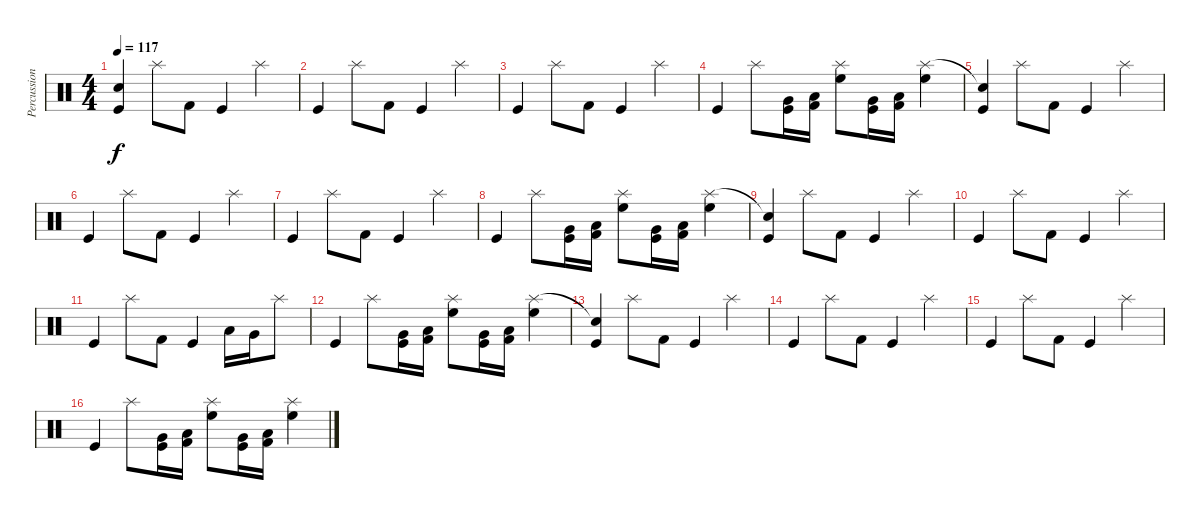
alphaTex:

\track ("Percussions" "Percussion") {instrument percussion}
\staff {score}
\articulation defaults
\ts (4 4)
\tempo 117
\clef neutral
\ks c
("Snare (hit)"{t} "Kick (hit)").4{dy f} "Splash (hit)".8 "Kick (hit) 2".8 "Kick (hit)".4 "Splash (hit)".4 |
"Kick (hit)".4 "Splash (hit)".8 "Kick (hit) 2".8 "Kick (hit)".4 "Splash (hit)".4 |
"Kick (hit)".4 "Splash (hit)".8 "Kick (hit) 2".8 "Kick (hit)".4 "Splash (hit)".4 |
"Kick (hit)".4 "Splash (hit)".8 ("Very Low Tom (hit)" "Kick (hit)").16 ("Low Tom (hit)" "Kick (hit) 2").16 ("Splash (hit)" "High Floor Tom (hit)").8 ("Very Low Tom (hit)" "Kick (hit)").16 ("Low Tom (hit)" "Kick (hit) 2").16 ("Splash (hit)" "High Floor Tom (hit)").4 |
("Snare (hit)"{t} "Kick (hit)").4 "Splash (hit)".8 "Kick (hit) 2".8 "Kick (hit)".4 "Splash (hit)".4 |
"Kick (hit)".4 "Splash (hit)".8 "Kick (hit) 2".8 "Kick (hit)".4 "Splash (hit)".4 |
"Kick (hit)".4 "Splash (hit)".8 "Kick (hit) 2".8 "Kick (hit)".4 "Splash (hit)".4 |
"Kick (hit)".4 "Splash (hit)".8 ("Very Low Tom (hit)" "Kick (hit)").16 ("Low Tom (hit)" "Kick (hit) 2").16 ("Splash (hit)" "High Floor Tom (hit)").8 ("Very Low Tom (hit)" "Kick (hit)").16 ("Low Tom (hit)" "Kick (hit) 2").16 ("Splash (hit)" "High Floor Tom (hit)").4 |
("Snare (hit)"{t} "Kick (hit)").4 "Splash (hit)".8 "Kick (hit) 2".8 "Kick (hit)".4 "Splash (hit)".4 |
"Kick (hit)".4 "Splash (hit)".8 "Kick (hit) 2".8 "Kick (hit)".4 "Splash (hit)".4 |
"Kick (hit)".4 "Splash (hit)".8 "Kick (hit) 2".8 "Kick (hit)".4 "Low Tom (hit)".16 "Very Low Tom (hit)".16 "Splash (hit)".8 |
"Kick (hit)".4 "Splash (hit)".8 ("Very Low Tom (hit)" "Kick (hit)").16 ("Low Tom (hit)" "Kick (hit) 2").16 ("Splash (hit)" "High Floor Tom (hit)").8 ("Very Low Tom (hit)" "Kick (hit)").16 ("Low Tom (hit)" "Kick (hit) 2").16 ("Splash (hit)" "High Floor Tom (hit)").4 |
("Snare (hit)"{t} "Kick (hit)").4 "Splash (hit)".8 "Kick (hit) 2".8 "Kick (hit)".4 "Splash (hit)".4 |
"Kick (hit)".4 "Splash (hit)".8 "Kick (hit) 2".8 "Kick (hit)".4 "Splash (hit)".4 |
"Kick (hit)".4 "Splash (hit)".8 "Kick (hit) 2".8 "Kick (hit)".4 "Splash (hit)".4 |
"Kick (hit)".4 "Splash (hit)".8 ("Very Low Tom (hit)" "Kick (hit)").16 ("Low Tom (hit)" "Kick (hit) 2").16 ("Splash (hit)" "High Floor Tom (hit)").8 ("Very Low Tom (hit)" "Kick (hit)").16 ("Low Tom (hit)" "Kick (hit) 2").16 ("Splash (hit)" "High Floor Tom (hit)").4
